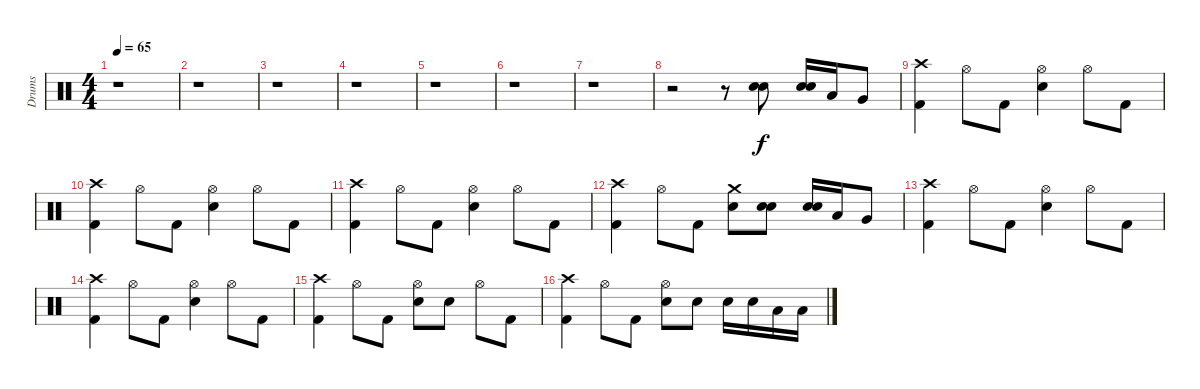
\track ("Drums" "Drums") {instrument percussion}
\staff {score}
\articulation defaults
\ts (4 4)
\tempo 65
\clef neutral
\ks c
r.1{dy f} |
r.1 |
r.1 |
r.1 |
r.1 |
r.1 |
r.1 |
r.2 r.8 ("Electric Snare (hit)" "Electric Snare (hit)").8{bu 60} ("Electric Snare (hit)" "Electric Snare (hit)").16{bu 60} "Low Tom (hit)".16 "Very Low Tom (hit)".8 |
("Crash high (hit)" "Kick (hit) 2").4 "Hi-Hat (open)".8 "Kick (hit) 2".8 ("Hi-Hat (open)" "Electric Snare (hit)").4 "Hi-Hat (open)".8 "Kick (hit) 2".8 |
("Crash high (hit)" "Kick (hit) 2").4 "Hi-Hat (open)".8 "Kick (hit) 2".8 ("Hi-Hat (open)" "Electric Snare (hit)").4 "Hi-Hat (open)".8 "Kick (hit) 2".8 |
("Crash high (hit)" "Kick (hit) 2").4 "Hi-Hat (open)".8 "Kick (hit) 2".8 ("Hi-Hat (open)" "Electric Snare (hit)").4 "Hi-Hat (open)".8 "Kick (hit) 2".8 |
("Crash high (hit)" "Kick (hit) 2").4 "Hi-Hat (open)".8 "Kick (hit) 2".8 ("Crash medium (hit)" "Electric Snare (hit)").8 ("Electric Snare (hit)" "Electric Snare (hit)").8{bu 60} ("Electric Snare (hit)" "Electric Snare (hit)").16{bu 60} "Low Tom (hit)".16 "Very Low Tom (hit)".8 |
("Crash high (hit)" "Kick (hit) 2").4 "Hi-Hat (open)".8 "Kick (hit) 2".8 ("Hi-Hat (open)" "Electric Snare (hit)").4 "Hi-Hat (open)".8 "Kick (hit) 2".8 |
("Crash high (hit)" "Kick (hit) 2").4 "Hi-Hat (open)".8 "Kick (hit) 2".8 ("Hi-Hat (open)" "Electric Snare (hit)").4 "Hi-Hat (open)".8 "Kick (hit) 2".8 |
("Crash high (hit)" "Kick (hit) 2").4 "Hi-Hat (open)".8 "Kick (hit) 2".8 ("Hi-Hat (open)" "Electric Snare (hit)").8 "Electric Snare (hit)".8 "Hi-Hat (open)".8 "Kick (hit) 2".8 |
("Crash high (hit)" "Kick (hit) 2").4 "Hi-Hat (open)".8 "Kick (hit) 2".8 ("Hi-Hat (open)" "Electric Snare (hit)").8 "Electric Snare (hit)".8 "Electric Snare (hit)".16 "Electric Snare (hit)".16 "Low Tom (hit)".16 "Low Tom (hit)".16
